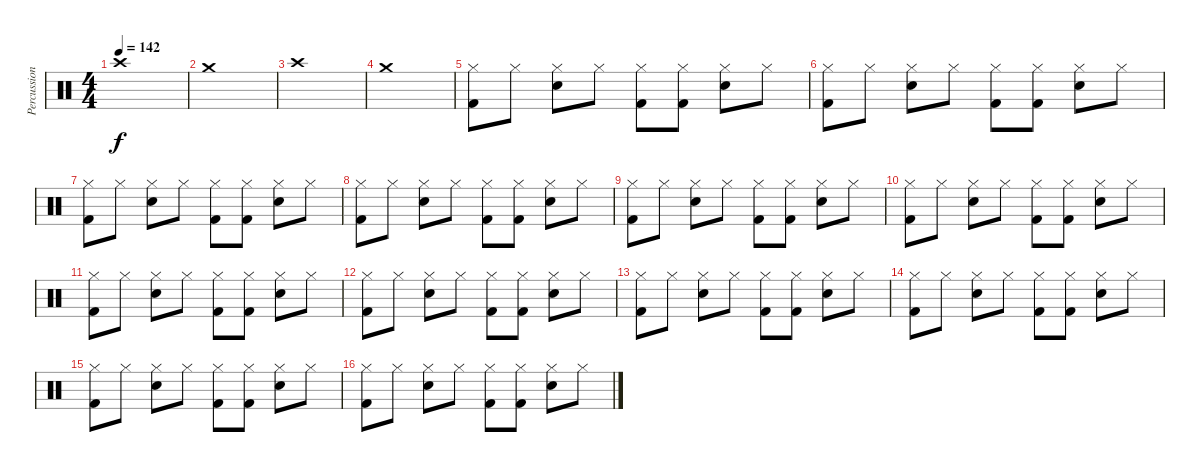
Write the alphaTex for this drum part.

\track ("Percussion" "Percussion") {instrument percussion}
\staff {score}
\articulation defaults
\ts (4 4)
\tempo 142
\clef neutral
\ks c "Crash high (hit)".1{dy f}
|
"Crash medium (hit)".1 |
"Crash high (hit)".1 |
"Crash medium (hit)".1 |
("Hi-Hat (closed)" "Kick (hit) 2").8 "Hi-Hat (closed)".8 ("Hi-Hat (closed)" "Electric Snare (hit)").8 "Hi-Hat (closed)".8 ("Hi-Hat (closed)" "Kick (hit) 2").8 ("Hi-Hat (closed)" "Kick (hit) 2").8 ("Hi-Hat (closed)" "Electric Snare (hit)").8 "Hi-Hat (closed)".8 |
("Hi-Hat (closed)" "Kick (hit) 2").8 "Hi-Hat (closed)".8 ("Hi-Hat (closed)" "Electric Snare (hit)").8 "Hi-Hat (closed)".8 ("Hi-Hat (closed)" "Kick (hit) 2").8 ("Hi-Hat (closed)" "Kick (hit) 2").8 ("Hi-Hat (closed)" "Electric Snare (hit)").8 "Hi-Hat (closed)".8 |
("Hi-Hat (closed)" "Kick (hit) 2").8 "Hi-Hat (closed)".8 ("Hi-Hat (closed)" "Electric Snare (hit)").8 "Hi-Hat (closed)".8 ("Hi-Hat (closed)" "Kick (hit) 2").8 ("Hi-Hat (closed)" "Kick (hit) 2").8 ("Hi-Hat (closed)" "Electric Snare (hit)").8 "Hi-Hat (closed)".8 |
("Hi-Hat (closed)" "Kick (hit) 2").8 "Hi-Hat (closed)".8 ("Hi-Hat (closed)" "Electric Snare (hit)").8 "Hi-Hat (closed)".8 ("Hi-Hat (closed)" "Kick (hit) 2").8 ("Hi-Hat (closed)" "Kick (hit) 2").8 ("Hi-Hat (closed)" "Electric Snare (hit)").8 "Hi-Hat (closed)".8 |
("Hi-Hat (closed)" "Kick (hit) 2").8 "Hi-Hat (closed)".8 ("Hi-Hat (closed)" "Electric Snare (hit)").8 "Hi-Hat (closed)".8 ("Hi-Hat (closed)" "Kick (hit) 2").8 ("Hi-Hat (closed)" "Kick (hit) 2").8 ("Hi-Hat (closed)" "Electric Snare (hit)").8 "Hi-Hat (closed)".8 |
("Hi-Hat (closed)" "Kick (hit) 2").8 "Hi-Hat (closed)".8 ("Hi-Hat (closed)" "Electric Snare (hit)").8 "Hi-Hat (closed)".8 ("Hi-Hat (closed)" "Kick (hit) 2").8 ("Hi-Hat (closed)" "Kick (hit) 2").8 ("Hi-Hat (closed)" "Electric Snare (hit)").8 "Hi-Hat (closed)".8 |
("Hi-Hat (closed)" "Kick (hit) 2").8 "Hi-Hat (closed)".8 ("Hi-Hat (closed)" "Electric Snare (hit)").8 "Hi-Hat (closed)".8 ("Hi-Hat (closed)" "Kick (hit) 2").8 ("Hi-Hat (closed)" "Kick (hit) 2").8 ("Hi-Hat (closed)" "Electric Snare (hit)").8 "Hi-Hat (closed)".8 |
("Hi-Hat (closed)" "Kick (hit) 2").8 "Hi-Hat (closed)".8 ("Hi-Hat (closed)" "Electric Snare (hit)").8 "Hi-Hat (closed)".8 ("Hi-Hat (closed)" "Kick (hit) 2").8 ("Hi-Hat (closed)" "Kick (hit) 2").8 ("Hi-Hat (closed)" "Electric Snare (hit)").8 "Hi-Hat (closed)".8 |
("Hi-Hat (closed)" "Kick (hit) 2").8 "Hi-Hat (closed)".8 ("Hi-Hat (closed)" "Electric Snare (hit)").8 "Hi-Hat (closed)".8 ("Hi-Hat (closed)" "Kick (hit) 2").8 ("Hi-Hat (closed)" "Kick (hit) 2").8 ("Hi-Hat (closed)" "Electric Snare (hit)").8 "Hi-Hat (closed)".8 |
("Hi-Hat (closed)" "Kick (hit) 2").8 "Hi-Hat (closed)".8 ("Hi-Hat (closed)" "Electric Snare (hit)").8 "Hi-Hat (closed)".8 ("Hi-Hat (closed)" "Kick (hit) 2").8 ("Hi-Hat (closed)" "Kick (hit) 2").8 ("Hi-Hat (closed)" "Electric Snare (hit)").8 "Hi-Hat (closed)".8 |
("Hi-Hat (closed)" "Kick (hit) 2").8 "Hi-Hat (closed)".8 ("Hi-Hat (closed)" "Electric Snare (hit)").8 "Hi-Hat (closed)".8 ("Hi-Hat (closed)" "Kick (hit) 2").8 ("Hi-Hat (closed)" "Kick (hit) 2").8 ("Hi-Hat (closed)" "Electric Snare (hit)").8 "Hi-Hat (closed)".8 |
("Hi-Hat (closed)" "Kick (hit) 2").8 "Hi-Hat (closed)".8 ("Hi-Hat (closed)" "Electric Snare (hit)").8 "Hi-Hat (closed)".8 ("Hi-Hat (closed)" "Kick (hit) 2").8 ("Hi-Hat (closed)" "Kick (hit) 2").8 ("Hi-Hat (closed)" "Electric Snare (hit)").8 "Hi-Hat (closed)".8
